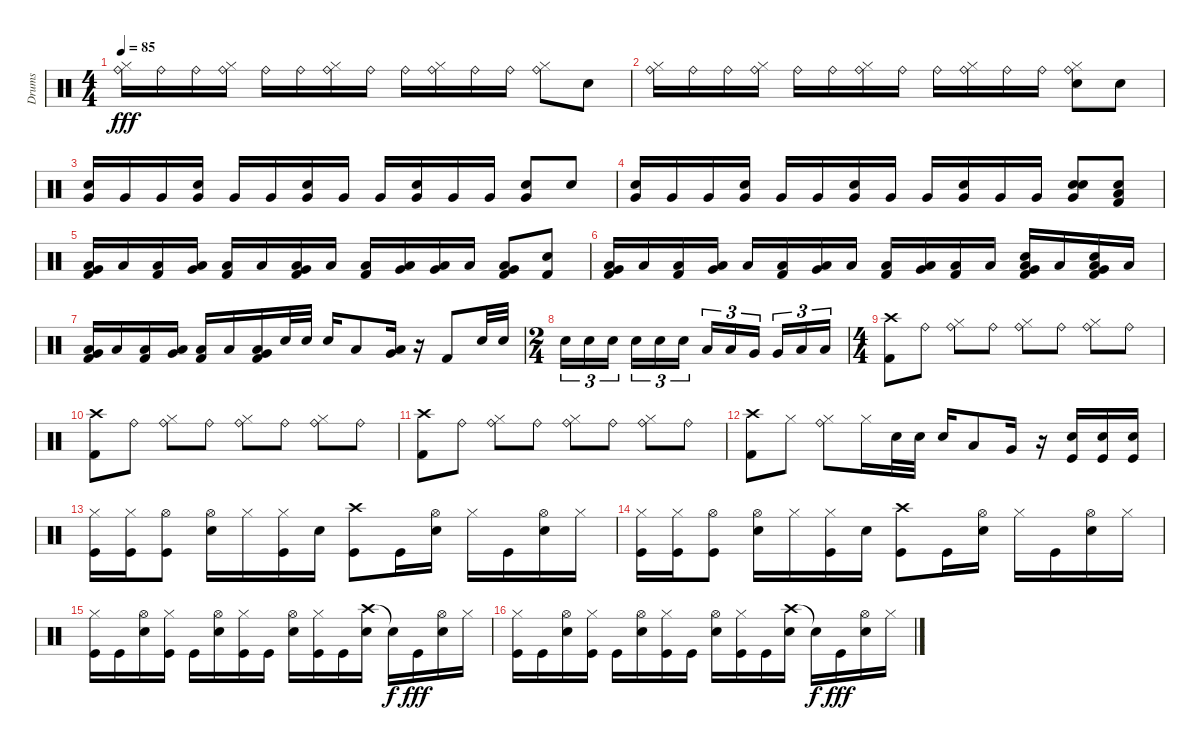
\track ("Drums" "Drums") {instrument percussion}
\staff {score}
\articulation defaults
\ts (4 4)
\tempo 85
\clef neutral
\ks c
("Ride (bell)" "Hi-Hat (closed)").16{dy fff} "Ride (bell)".16 "Ride (bell)".16 ("Ride (bell)" "Hi-Hat (closed)").16 "Ride (bell)".16 "Ride (bell)".16 ("Ride (bell)" "Hi-Hat (closed)").16 "Ride (bell)".16 "Ride (bell)".16 ("Ride (bell)" "Hi-Hat (closed)").16 "Ride (bell)".16 "Ride (bell)".16 ("Ride (bell)" "Hi-Hat (closed)").8 "Hand Clap (hit)".8 |
("Ride (bell)" "Hi-Hat (closed)").16 "Ride (bell)".16 "Ride (bell)".16 ("Ride (bell)" "Hi-Hat (closed)").16 "Ride (bell)".16 "Ride (bell)".16 ("Ride (bell)" "Hi-Hat (closed)").16 "Ride (bell)".16 "Ride (bell)".16 ("Ride (bell)" "Hi-Hat (closed)").16 "Ride (bell)".16 "Ride (bell)".16 ("Ride (bell)" "Hi-Hat (closed)" "Hand Clap (hit)").8 "Hand Clap (hit)".8 |
("Very Low Tom (hit)" "Snare (hit) 2").16 "Very Low Tom (hit)".16 "Very Low Tom (hit)".16 ("Very Low Tom (hit)" "Snare (hit) 2").16 "Very Low Tom (hit)".16 "Very Low Tom (hit)".16 ("Very Low Tom (hit)" "Snare (hit) 2").16 "Very Low Tom (hit)".16 "Very Low Tom (hit)".16 ("Very Low Tom (hit)" "Snare (hit) 2").16 "Very Low Tom (hit)".16 "Very Low Tom (hit)".16 ("Very Low Tom (hit)" "Snare (hit) 2").8 "Hand Clap (hit)".8 |
("Very Low Tom (hit)" "Snare (hit) 2").16 "Very Low Tom (hit)".16 "Very Low Tom (hit)".16 ("Very Low Tom (hit)" "Snare (hit) 2").16 "Very Low Tom (hit)".16 "Very Low Tom (hit)".16 ("Very Low Tom (hit)" "Snare (hit) 2").16 "Very Low Tom (hit)".16 "Very Low Tom (hit)".16 ("Very Low Tom (hit)" "Snare (hit) 2").16 "Very Low Tom (hit)".16 "Very Low Tom (hit)".16 ("Hand Clap (hit)" "Very Low Tom (hit)" "Snare (hit) 2").8 ("Hand Clap (hit)" "Low Floor Tom (hit)" "Kick (hit) 2").8 |
("Very Low Tom (hit)" "Low Floor Tom (hit)" "Kick (hit) 2").16 "Low Floor Tom (hit)".16 ("Low Floor Tom (hit)" "Kick (hit) 2").16 ("Very Low Tom (hit)" "Low Floor Tom (hit)").16 ("Low Floor Tom (hit)" "Kick (hit) 2").16 "Low Floor Tom (hit)".16 ("Very Low Tom (hit)" "Low Floor Tom (hit)" "Kick (hit) 2").16 "Low Floor Tom (hit)".16 ("Low Floor Tom (hit)" "Kick (hit) 2").16 ("Very Low Tom (hit)" "Low Floor Tom (hit)").16 ("Very Low Tom (hit)" "Low Floor Tom (hit)").16 "Low Floor Tom (hit)".16 ("Very Low Tom (hit)" "Low Floor Tom (hit)" "Kick (hit) 2").8 ("Hand Clap (hit)" "Kick (hit) 2").8 |
("Very Low Tom (hit)" "Low Floor Tom (hit)" "Kick (hit) 2").16 "Low Floor Tom (hit)".16 ("Low Floor Tom (hit)" "Kick (hit) 2").16 ("Very Low Tom (hit)" "Low Floor Tom (hit)").16 "Low Floor Tom (hit)".16 ("Low Floor Tom (hit)" "Kick (hit) 2").16 ("Very Low Tom (hit)" "Low Floor Tom (hit)").16 "Low Floor Tom (hit)".16 ("Low Floor Tom (hit)" "Kick (hit) 2").16 ("Very Low Tom (hit)" "Low Floor Tom (hit)").16 ("Low Floor Tom (hit)" "Kick (hit) 2").16 "Low Floor Tom (hit)".16 ("Hand Clap (hit)" "Very Low Tom (hit)" "Low Floor Tom (hit)" "Kick (hit) 2").16 "Low Floor Tom (hit)".16 ("Hand Clap (hit)" "Very Low Tom (hit)" "Low Floor Tom (hit)" "Kick (hit) 2").16 "Low Floor Tom (hit)".16 |
("Very Low Tom (hit)" "Low Floor Tom (hit)" "Kick (hit) 2").16 "Low Floor Tom (hit)".16 ("Low Floor Tom (hit)" "Kick (hit) 2").16 ("Very Low Tom (hit)" "Low Floor Tom (hit)").16 ("Low Floor Tom (hit)" "Kick (hit) 2").16 "Low Floor Tom (hit)".16 ("Very Low Tom (hit)" "Low Floor Tom (hit)" "Kick (hit) 2").16 "Snare (hit) 2".32 "Snare (hit) 2".32 "Snare (hit) 2".16 "Low Tom (hit)".8 ("Very Low Tom (hit)" "Low Floor Tom (hit)").16 r.16 "Kick (hit) 2".8 "Snare (hit) 2".32 "Snare (hit) 2".32 |
\ts (2 4)
"Snare (hit) 2".16{tu (3 2)} "Snare (hit) 2".16{tu (3 2)} "Snare (hit) 2".16{tu (3 2) beam splitsecondary} "Snare (hit) 2".16{tu (3 2)} "Snare (hit) 2".16{tu (3 2)} "Snare (hit) 2".16{tu (3 2)} "Low Tom (hit)".16{tu (3 2)} "Low Tom (hit)".16{tu (3 2)} "Very Low Tom (hit)".16{tu (3 2) beam splitsecondary} "Very Low Tom (hit)".16{tu (3 2)} "Low Floor Tom (hit)".16{tu (3 2)} "Low Floor Tom (hit)".16{tu (3 2)} |
\ts (4 4)
("Crash high (hit)" "Kick (hit) 2").8 "Ride (bell)".8 ("Hi-Hat (closed)" "Ride (bell)").8 "Ride (bell)".8 ("Hi-Hat (closed)" "Ride (bell)").8 "Ride (bell)".8 ("Hi-Hat (closed)" "Ride (bell)").8 "Ride (bell)".8 |
("Crash high (hit)" "Kick (hit) 2").8 "Ride (bell)".8 ("Hi-Hat (closed)" "Ride (bell)").8 "Ride (bell)".8 ("Hi-Hat (closed)" "Ride (bell)").8 "Ride (bell)".8 ("Hi-Hat (closed)" "Ride (bell)").8 "Ride (bell)".8 |
("Crash high (hit)" "Kick (hit) 2").8 "Ride (bell)".8 ("Hi-Hat (closed)" "Ride (bell)").8 "Ride (bell)".8 ("Hi-Hat (closed)" "Ride (bell)").8 "Ride (bell)".8 ("Hi-Hat (closed)" "Ride (bell)").8 "Ride (bell)".8 |
("Crash high (hit)" "Kick (hit) 2").8 "Hi-Hat (closed)".8 ("Hi-Hat (closed)" "Ride (bell)").8 "Hi-Hat (closed)".16 "Snare (hit) 2".32 "Snare (hit) 2".32 "Snare (hit) 2".16 "Low Tom (hit)".8 "Very Low Tom (hit)".16 r.16 ("Snare (hit) 2" "Kick (hit)").16 ("Snare (hit) 2" "Kick (hit)").16 ("Snare (hit) 2" "Kick (hit)").16 |
("Hi-Hat (closed)" "Kick (hit)").16 ("Hi-Hat (closed)" "Kick (hit)").16 ("Hi-Hat (open)" "Kick (hit)").8 ("Hi-Hat (open)" "Snare (hit) 2").16 "Hi-Hat (closed)".16 ("Hi-Hat (closed)" "Kick (hit)").16 "Snare (hit) 2".16 ("Crash high (hit)" "Kick (hit)").8 "Kick (hit)".16 ("Hi-Hat (open)" "Snare (hit) 2").16 "Hi-Hat (closed)".16 "Kick (hit)".16 ("Hi-Hat (open)" "Snare (hit) 2").16 "Hi-Hat (closed)".16 |
("Hi-Hat (closed)" "Kick (hit)").16 ("Hi-Hat (closed)" "Kick (hit)").16 ("Hi-Hat (open)" "Kick (hit)").8 ("Hi-Hat (open)" "Snare (hit) 2").16 "Hi-Hat (closed)".16 ("Hi-Hat (closed)" "Kick (hit)").16 "Snare (hit) 2".16 ("Crash high (hit)" "Kick (hit)").8 "Kick (hit)".16 ("Hi-Hat (open)" "Snare (hit) 2").16 "Hi-Hat (closed)".16 "Kick (hit)".16 ("Hi-Hat (open)" "Snare (hit) 2").16 "Hi-Hat (closed)".16 |
("Hi-Hat (closed)" "Kick (hit)").16 "Kick (hit)".16 ("Hi-Hat (open)" "Snare (hit) 2").16 ("Hi-Hat (closed)" "Kick (hit)").16 "Kick (hit)".16 ("Hi-Hat (open)" "Snare (hit) 2").16 ("Hi-Hat (closed)" "Kick (hit)").16 "Kick (hit)".16 ("Hi-Hat (open)" "Snare (hit) 2").16 ("Hi-Hat (closed)" "Kick (hit)").16 "Kick (hit)".16 ("Crash high (hit)" "Snare (hit) 2").16 "Snare (hit)"{t}.16{dy f} "Kick (hit)".16{dy fff} ("Hi-Hat (open)" "Snare (hit) 2").16 "Hi-Hat (closed)".16 |
("Hi-Hat (closed)" "Kick (hit)").16 "Kick (hit)".16 ("Hi-Hat (open)" "Snare (hit) 2").16 ("Hi-Hat (closed)" "Kick (hit)").16 "Kick (hit)".16 ("Hi-Hat (open)" "Snare (hit) 2").16 ("Hi-Hat (closed)" "Kick (hit)").16 "Kick (hit)".16 ("Hi-Hat (open)" "Snare (hit) 2").16 ("Hi-Hat (closed)" "Kick (hit)").16 "Kick (hit)".16 ("Crash high (hit)" "Snare (hit) 2").16 "Snare (hit)"{t}.16{dy f} "Kick (hit)".16{dy fff} ("Hi-Hat (open)" "Snare (hit) 2").16 "Hi-Hat (closed)".16
